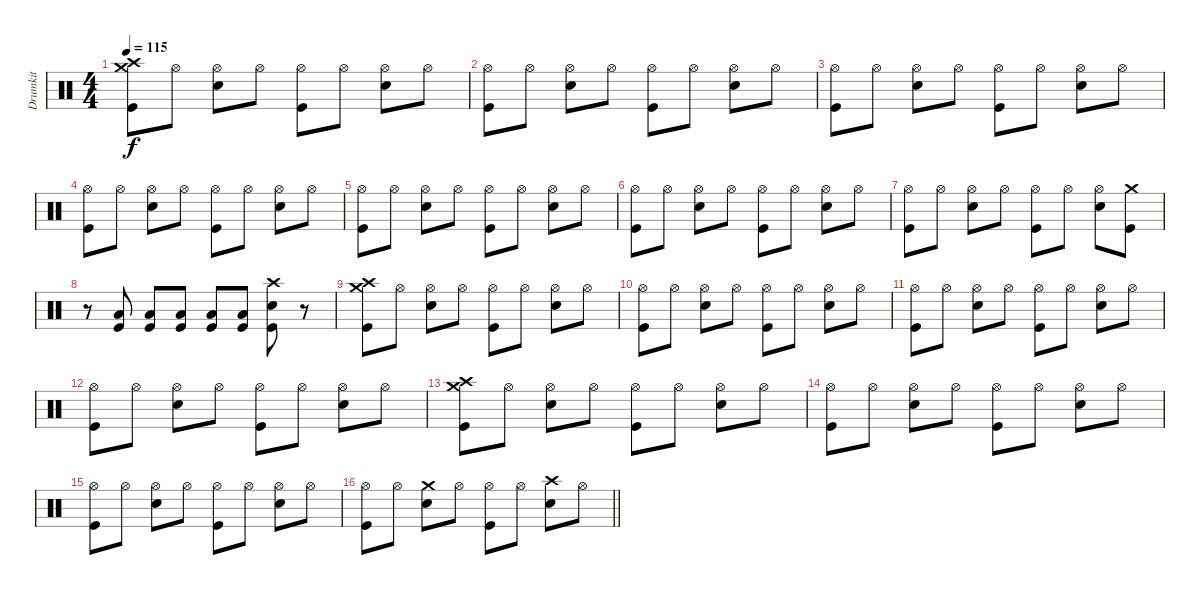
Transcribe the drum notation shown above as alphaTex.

\track ("Drumkit" "Drumkit") {instrument percussion}
\staff {score}
\articulation defaults
\ts (4 4)
\tempo 115
\clef neutral
\ks c
("Crash high (hit)" "Crash medium (hit)" "Kick (hit)").8{dy f} "Hi-Hat (open)".8 ("Hi-Hat (open)" "Snare (hit) 2").8 "Hi-Hat (open)".8 ("Hi-Hat (open)" "Kick (hit)").8 "Hi-Hat (open)".8 ("Hi-Hat (open)" "Snare (hit) 2").8 "Hi-Hat (open)".8 |
("Hi-Hat (open)" "Kick (hit)").8 "Hi-Hat (open)".8 ("Hi-Hat (open)" "Snare (hit) 2").8 "Hi-Hat (open)".8 ("Hi-Hat (open)" "Kick (hit)").8 "Hi-Hat (open)".8 ("Hi-Hat (open)" "Snare (hit) 2").8 "Hi-Hat (open)".8 |
("Hi-Hat (open)" "Kick (hit)").8 "Hi-Hat (open)".8 ("Hi-Hat (open)" "Snare (hit) 2").8 "Hi-Hat (open)".8 ("Hi-Hat (open)" "Kick (hit)").8 "Hi-Hat (open)".8 ("Hi-Hat (open)" "Snare (hit) 2").8 "Hi-Hat (open)".8 |
("Hi-Hat (open)" "Kick (hit)").8 "Hi-Hat (open)".8 ("Hi-Hat (open)" "Snare (hit) 2").8 "Hi-Hat (open)".8 ("Hi-Hat (open)" "Kick (hit)").8 "Hi-Hat (open)".8 ("Hi-Hat (open)" "Snare (hit) 2").8 "Hi-Hat (open)".8 |
("Hi-Hat (open)" "Kick (hit)").8 "Hi-Hat (open)".8 ("Hi-Hat (open)" "Snare (hit) 2").8 "Hi-Hat (open)".8 ("Hi-Hat (open)" "Kick (hit)").8 "Hi-Hat (open)".8 ("Hi-Hat (open)" "Snare (hit) 2").8 "Hi-Hat (open)".8 |
("Hi-Hat (open)" "Kick (hit)").8 "Hi-Hat (open)".8 ("Hi-Hat (open)" "Snare (hit) 2").8 "Hi-Hat (open)".8 ("Hi-Hat (open)" "Kick (hit)").8 "Hi-Hat (open)".8 ("Hi-Hat (open)" "Snare (hit) 2").8 "Hi-Hat (open)".8 |
("Hi-Hat (open)" "Kick (hit)").8 "Hi-Hat (open)".8 ("Hi-Hat (open)" "Snare (hit) 2").8 "Hi-Hat (open)".8 ("Hi-Hat (open)" "Kick (hit)").8 "Hi-Hat (open)".8 ("Hi-Hat (open)" "Snare (hit) 2").8 ("Crash medium (hit)" "Kick (hit)").8 |
r.8 ("Kick (hit)" "Low Tom (hit)").8 ("Kick (hit)" "Low Tom (hit)").8 ("Kick (hit)" "Low Tom (hit)").8 ("Kick (hit)" "Low Tom (hit)").8 ("Kick (hit)" "Low Tom (hit)").8 ("Crash high (hit)" "Kick (hit)" "Snare (hit) 2").8 r.8 |
("Crash high (hit)" "Crash medium (hit)" "Kick (hit)").8 "Hi-Hat (open)".8 ("Hi-Hat (open)" "Snare (hit) 2").8 "Hi-Hat (open)".8 ("Hi-Hat (open)" "Kick (hit)").8 "Hi-Hat (open)".8 ("Hi-Hat (open)" "Snare (hit) 2").8 "Hi-Hat (open)".8 |
("Hi-Hat (open)" "Kick (hit)").8 "Hi-Hat (open)".8 ("Hi-Hat (open)" "Snare (hit) 2").8 "Hi-Hat (open)".8 ("Hi-Hat (open)" "Kick (hit)").8 "Hi-Hat (open)".8 ("Hi-Hat (open)" "Snare (hit) 2").8 "Hi-Hat (open)".8 |
("Hi-Hat (open)" "Kick (hit)").8 "Hi-Hat (open)".8 ("Hi-Hat (open)" "Snare (hit) 2").8 "Hi-Hat (open)".8 ("Hi-Hat (open)" "Kick (hit)").8 "Hi-Hat (open)".8 ("Hi-Hat (open)" "Snare (hit) 2").8 "Hi-Hat (open)".8 |
("Hi-Hat (open)" "Kick (hit)").8 "Hi-Hat (open)".8 ("Hi-Hat (open)" "Snare (hit) 2").8 "Hi-Hat (open)".8 ("Hi-Hat (open)" "Kick (hit)").8 "Hi-Hat (open)".8 ("Hi-Hat (open)" "Snare (hit) 2").8 "Hi-Hat (open)".8 |
("Crash high (hit)" "Crash medium (hit)" "Kick (hit)").8 "Hi-Hat (open)".8 ("Hi-Hat (open)" "Snare (hit) 2").8 "Hi-Hat (open)".8 ("Hi-Hat (open)" "Kick (hit)").8 "Hi-Hat (open)".8 ("Hi-Hat (open)" "Snare (hit) 2").8 "Hi-Hat (open)".8 |
("Hi-Hat (open)" "Kick (hit)").8 "Hi-Hat (open)".8 ("Hi-Hat (open)" "Snare (hit) 2").8 "Hi-Hat (open)".8 ("Hi-Hat (open)" "Kick (hit)").8 "Hi-Hat (open)".8 ("Hi-Hat (open)" "Snare (hit) 2").8 "Hi-Hat (open)".8 |
("Hi-Hat (open)" "Kick (hit)").8 "Hi-Hat (open)".8 ("Hi-Hat (open)" "Snare (hit) 2").8 "Hi-Hat (open)".8 ("Hi-Hat (open)" "Kick (hit)").8 "Hi-Hat (open)".8 ("Hi-Hat (open)" "Snare (hit) 2").8 "Hi-Hat (open)".8 |
\barLineRight lightlight
("Hi-Hat (open)" "Kick (hit)").8 "Hi-Hat (open)".8 ("Crash medium (hit)" "Snare (hit) 2").8 "Hi-Hat (open)".8 ("Hi-Hat (open)" "Kick (hit)").8 "Hi-Hat (open)".8 ("Crash high (hit)" "Snare (hit) 2").8 "Hi-Hat (open)".8
